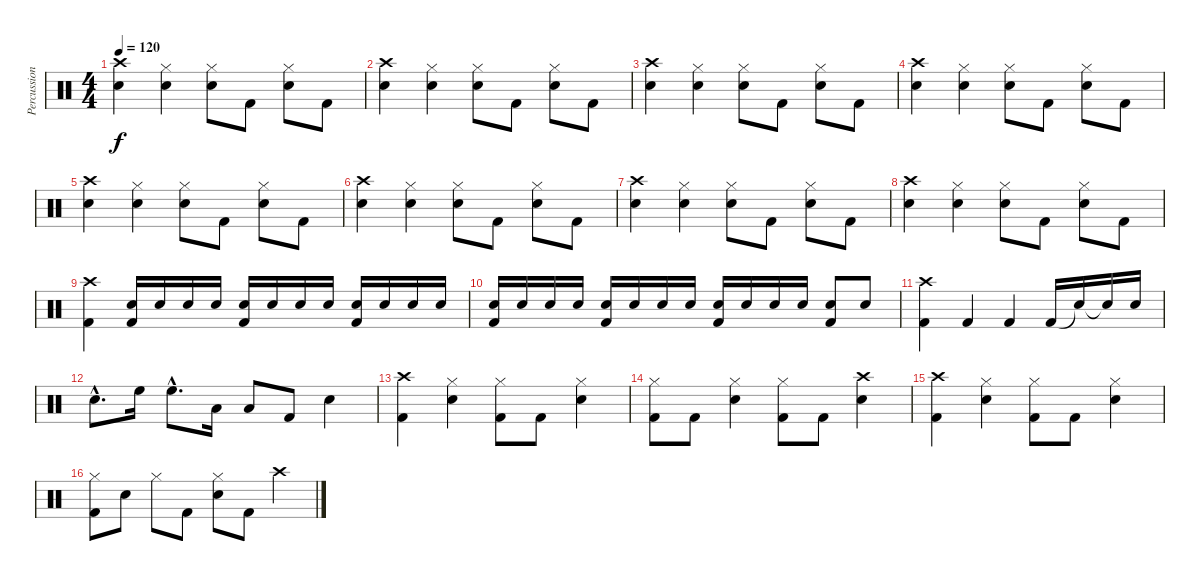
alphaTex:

\track ("Percussion" "Percussion") {instrument percussion}
\staff {score}
\articulation defaults
\ts (4 4)
\tempo 120
\clef neutral
\ks c
("Crash high (hit)" "Snare (hit) 2").4{dy f} ("Hi-Hat (closed)" "Snare (hit) 2").4 ("Hi-Hat (closed)" "Snare (hit) 2").8 "Kick (hit) 2".8 ("Hi-Hat (closed)" "Snare (hit) 2").8 "Kick (hit) 2".8 |
("Crash high (hit)" "Snare (hit) 2").4 ("Hi-Hat (closed)" "Snare (hit) 2").4 ("Hi-Hat (closed)" "Snare (hit) 2").8 "Kick (hit) 2".8 ("Hi-Hat (closed)" "Snare (hit) 2").8 "Kick (hit) 2".8 |
("Crash high (hit)" "Snare (hit) 2").4 ("Hi-Hat (closed)" "Snare (hit) 2").4 ("Hi-Hat (closed)" "Snare (hit) 2").8 "Kick (hit) 2".8 ("Hi-Hat (closed)" "Snare (hit) 2").8 "Kick (hit) 2".8 |
("Crash high (hit)" "Snare (hit) 2").4 ("Hi-Hat (closed)" "Snare (hit) 2").4 ("Hi-Hat (closed)" "Snare (hit) 2").8 "Kick (hit) 2".8 ("Hi-Hat (closed)" "Snare (hit) 2").8 "Kick (hit) 2".8 |
("Crash high (hit)" "Snare (hit) 2").4 ("Hi-Hat (closed)" "Snare (hit) 2").4 ("Hi-Hat (closed)" "Snare (hit) 2").8 "Kick (hit) 2".8 ("Hi-Hat (closed)" "Snare (hit) 2").8 "Kick (hit) 2".8 |
("Crash high (hit)" "Snare (hit) 2").4 ("Hi-Hat (closed)" "Snare (hit) 2").4 ("Hi-Hat (closed)" "Snare (hit) 2").8 "Kick (hit) 2".8 ("Hi-Hat (closed)" "Snare (hit) 2").8 "Kick (hit) 2".8 |
("Crash high (hit)" "Snare (hit) 2").4 ("Hi-Hat (closed)" "Snare (hit) 2").4 ("Hi-Hat (closed)" "Snare (hit) 2").8 "Kick (hit) 2".8 ("Hi-Hat (closed)" "Snare (hit) 2").8 "Kick (hit) 2".8 |
("Crash high (hit)" "Snare (hit) 2").4 ("Hi-Hat (closed)" "Snare (hit) 2").4 ("Hi-Hat (closed)" "Snare (hit) 2").8 "Kick (hit) 2".8 ("Hi-Hat (closed)" "Snare (hit) 2").8 "Kick (hit) 2".8 |
("Crash high (hit)" "Kick (hit) 2").4 ("Snare (hit) 2" "Kick (hit) 2").16 "Snare (hit) 2".16 "Snare (hit) 2".16 "Snare (hit) 2".16 ("Snare (hit) 2" "Kick (hit) 2").16 "Snare (hit) 2".16 "Snare (hit) 2".16 "Snare (hit) 2".16 ("Snare (hit) 2" "Kick (hit) 2").16 "Snare (hit) 2".16 "Snare (hit) 2".16 "Snare (hit) 2".16 |
("Snare (hit) 2" "Kick (hit) 2").16 "Snare (hit) 2".16 "Snare (hit) 2".16 "Snare (hit) 2".16 ("Snare (hit) 2" "Kick (hit) 2").16 "Snare (hit) 2".16 "Snare (hit) 2".16 "Snare (hit) 2".16 ("Snare (hit) 2" "Kick (hit) 2").16 "Snare (hit) 2".16 "Snare (hit) 2".16 "Snare (hit) 2".16 ("Snare (hit) 2" "Kick (hit) 2").8 "Snare (hit) 2".8 |
("Crash high (hit)" "Kick (hit) 2").4 "Kick (hit) 2".4 "Kick (hit) 2".4 "Kick (hit) 2".16 "Snare (hit)"{t}.16 "Snare (hit)"{t}.16 "Snare (hit) 2".16 |
"Snare (hit) 2"{hac}.8{d} "High Floor Tom (hit)".16 "High Floor Tom (hit)"{hac}.8{d} "Low Tom (hit)".16 "Low Tom (hit)".8 "Kick (hit) 2".8 "Snare (hit) 2".4 |
("Crash high (hit)" "Kick (hit) 2").4 ("Hi-Hat (closed)" "Snare (hit) 2").4 ("Hi-Hat (closed)" "Kick (hit) 2").8 "Kick (hit) 2".8 ("Hi-Hat (closed)" "Snare (hit) 2").4 |
("Hi-Hat (closed)" "Kick (hit) 2").8 "Kick (hit) 2".8 ("Hi-Hat (closed)" "Snare (hit) 2").4 ("Hi-Hat (closed)" "Kick (hit) 2").8 "Kick (hit) 2".8 ("Crash high (hit)" "Snare (hit) 2").4 |
("Crash high (hit)" "Kick (hit) 2").4 ("Hi-Hat (closed)" "Snare (hit) 2").4 ("Hi-Hat (closed)" "Kick (hit) 2").8 "Kick (hit) 2".8 ("Hi-Hat (closed)" "Snare (hit) 2").4 |
("Hi-Hat (closed)" "Kick (hit) 2").8 "Snare (hit) 2".8 "Hi-Hat (closed)".8 "Kick (hit) 2".8 ("Hi-Hat (closed)" "Snare (hit) 2").8 "Kick (hit) 2".8 "Crash high (hit)".4
